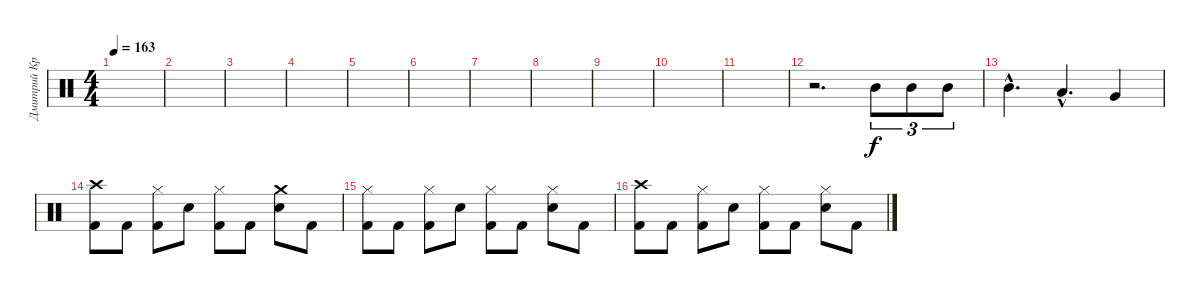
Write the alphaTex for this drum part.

\track ("Дмитрий Кривенков" "Дмитрий Кр") {instrument percussion}
\staff {score}
\articulation defaults
\ts (4 4)
\tempo 163
\clef neutral
\ks c
|
|
|
|
|
|
|
|
|
|
|
r.2{d} "Mid Tom (hit)".8{tu (3 2)} "Mid Tom (hit)".8{tu (3 2)} "Mid Tom (hit)".8{tu (3 2)} |
"Mid Tom (hit)"{hac}.4{d} "Low Tom (hit)"{hac}.4{d} "Very Low Tom (hit)".4 |
("Crash high (hit)" "Kick (hit) 2").8 "Kick (hit) 2".8 ("Hi-Hat (closed)" "Kick (hit) 2").8 "Electric Snare (hit)".8 ("Hi-Hat (closed)" "Kick (hit) 2").8 "Kick (hit) 2".8 ("Crash medium (hit)" "Electric Snare (hit)").8 "Kick (hit) 2".8 |
("Hi-Hat (closed)" "Kick (hit) 2").8 "Kick (hit) 2".8 ("Hi-Hat (closed)" "Kick (hit) 2").8 "Electric Snare (hit)".8 ("Hi-Hat (closed)" "Kick (hit) 2").8 "Kick (hit) 2".8 ("Hi-Hat (closed)" "Electric Snare (hit)").8 "Kick (hit) 2".8 |
("Crash high (hit)" "Kick (hit) 2").8 "Kick (hit) 2".8 ("Hi-Hat (closed)" "Kick (hit) 2").8 "Electric Snare (hit)".8 ("Hi-Hat (closed)" "Kick (hit) 2").8 "Kick (hit) 2".8 ("Hi-Hat (closed)" "Electric Snare (hit)").8 "Kick (hit) 2".8
